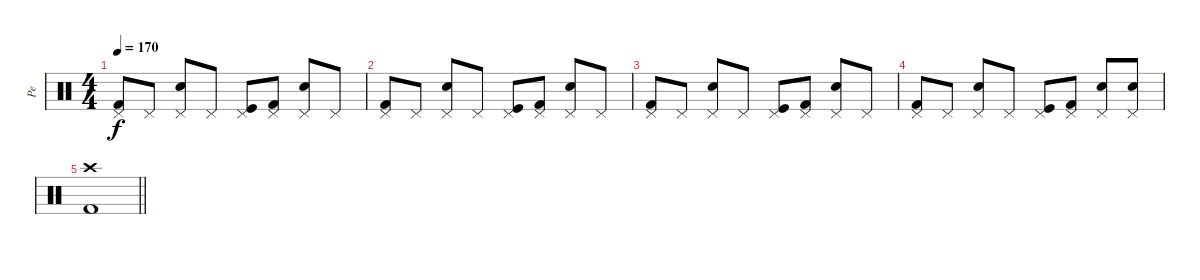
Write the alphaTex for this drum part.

\track ("Pe" "Pe") {instrument percussion}
\staff {score}
\articulation defaults
\ts (4 4)
\tempo 170
\clef neutral
\ks c
("Kick (hit) 2" "Pedal Hi-Hat (hit)").8{dy f} "Pedal Hi-Hat (hit)".8 ("Electric Snare (hit)" "Pedal Hi-Hat (hit)").8 "Pedal Hi-Hat (hit)".8 ("Kick (hit)" "Pedal Hi-Hat (hit)").8 ("Kick (hit) 2" "Pedal Hi-Hat (hit)").8 ("Electric Snare (hit)" "Pedal Hi-Hat (hit)").8 "Pedal Hi-Hat (hit)".8 |
("Kick (hit) 2" "Pedal Hi-Hat (hit)").8 "Pedal Hi-Hat (hit)".8 ("Electric Snare (hit)" "Pedal Hi-Hat (hit)").8 "Pedal Hi-Hat (hit)".8 ("Kick (hit)" "Pedal Hi-Hat (hit)").8 ("Kick (hit) 2" "Pedal Hi-Hat (hit)").8 ("Electric Snare (hit)" "Pedal Hi-Hat (hit)").8 "Pedal Hi-Hat (hit)".8 |
("Kick (hit) 2" "Pedal Hi-Hat (hit)").8 "Pedal Hi-Hat (hit)".8 ("Electric Snare (hit)" "Pedal Hi-Hat (hit)").8 "Pedal Hi-Hat (hit)".8 ("Kick (hit)" "Pedal Hi-Hat (hit)").8 ("Kick (hit) 2" "Pedal Hi-Hat (hit)").8 ("Electric Snare (hit)" "Pedal Hi-Hat (hit)").8 "Pedal Hi-Hat (hit)".8 |
("Kick (hit) 2" "Pedal Hi-Hat (hit)").8 "Pedal Hi-Hat (hit)".8 ("Electric Snare (hit)" "Pedal Hi-Hat (hit)").8 "Pedal Hi-Hat (hit)".8 ("Kick (hit)" "Pedal Hi-Hat (hit)").8 ("Kick (hit) 2" "Pedal Hi-Hat (hit)").8 ("Electric Snare (hit)" "Pedal Hi-Hat (hit)").8 ("Electric Snare (hit)" "Pedal Hi-Hat (hit)").8 |
\barLineRight lightlight
("Kick (hit) 2" "Crash high (hit)").1
